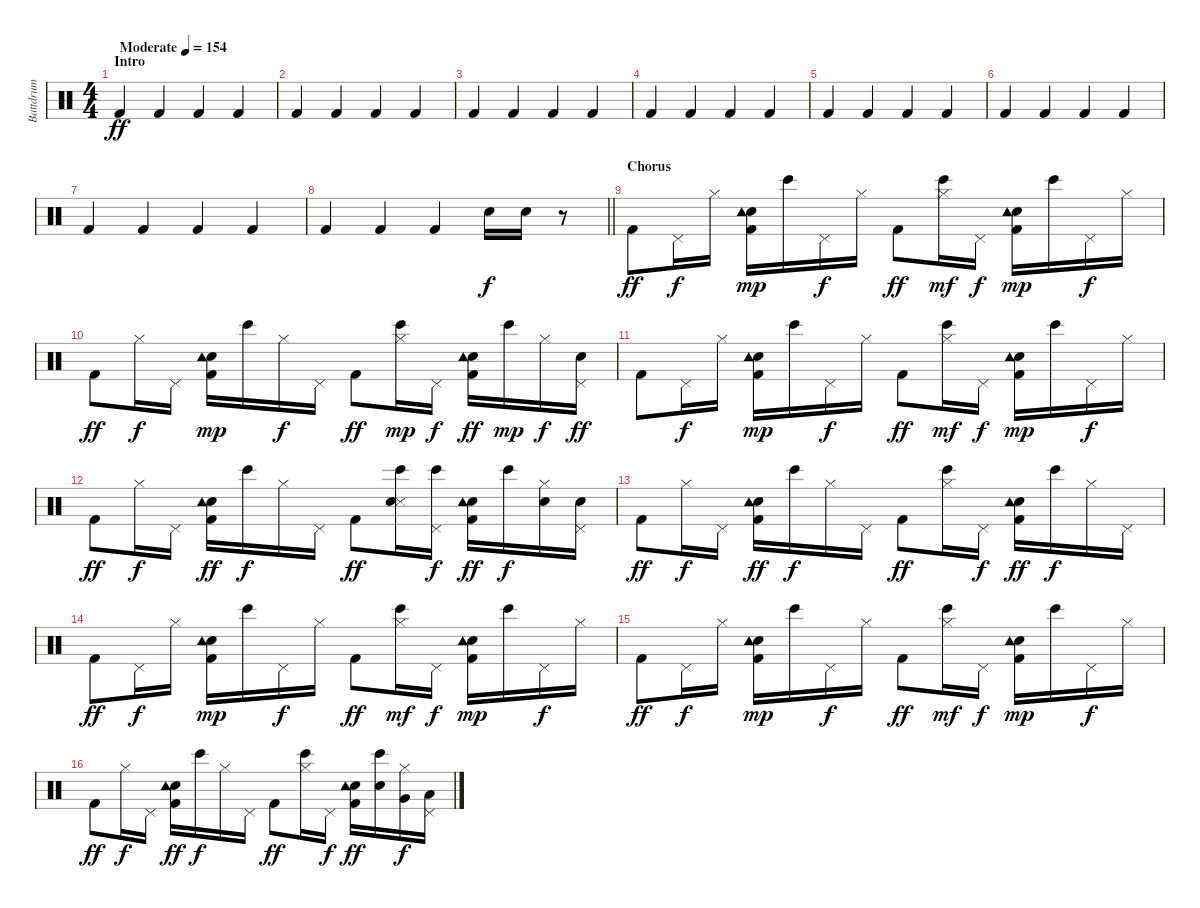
\track ("Battdrum" "Battdrum") {instrument percussion}
\staff {score}
\articulation defaults
\ts (4 4)
\section ("" "Intro")
\tempo (154 "Moderate")
\clef neutral
\ks c "Kick (hit) 2".4{dy ff} "Kick (hit) 2".4 "Kick (hit) 2".4 "Kick (hit) 2".4
|
"Kick (hit) 2".4 "Kick (hit) 2".4 "Kick (hit) 2".4 "Kick (hit) 2".4 |
"Kick (hit) 2".4 "Kick (hit) 2".4 "Kick (hit) 2".4 "Kick (hit) 2".4 |
"Kick (hit) 2".4 "Kick (hit) 2".4 "Kick (hit) 2".4 "Kick (hit) 2".4 |
"Kick (hit) 2".4 "Kick (hit) 2".4 "Kick (hit) 2".4 "Kick (hit) 2".4 |
"Kick (hit) 2".4 "Kick (hit) 2".4 "Kick (hit) 2".4 "Kick (hit) 2".4 |
"Kick (hit) 2".4 "Kick (hit) 2".4 "Kick (hit) 2".4 "Kick (hit) 2".4 |
\barLineRight lightlight "Kick (hit) 2".4 "Kick (hit) 2".4 "Kick (hit) 2".4 "Snare (hit) 2".16{dy f} "Snare (hit) 2".16
r.8 |
\section ("" "Chorus")
"Kick (hit) 2".8{dy ff} "Pedal Hi-Hat (hit)".16{dy f} "Hi-Hat (closed)".16 ("Kick (hit) 2" "Electric Snare (hit)" "Tambourine (hit)").16{dy mp} "Bongo High (hit)".16 "Pedal Hi-Hat (hit)".16{dy f} "Hi-Hat (closed)".16 "Kick (hit) 2".8{dy ff} ("Bongo High (hit)" "Hi-Hat (closed)").16{dy mf} "Pedal Hi-Hat (hit)".16{dy f} ("Kick (hit) 2" "Electric Snare (hit)" "Tambourine (hit)").16{dy mp} "Bongo High (hit)".16 "Pedal Hi-Hat (hit)".16{dy f} "Hi-Hat (closed)".16 |
"Kick (hit) 2".8{dy ff} "Hi-Hat (closed)".16{dy f} "Pedal Hi-Hat (hit)".16 ("Kick (hit) 2" "Electric Snare (hit)" "Tambourine (hit)").16{dy mp} "Bongo High (hit)".16 "Hi-Hat (closed)".16{dy f} "Pedal Hi-Hat (hit)".16 "Kick (hit) 2".8{dy ff} ("Bongo High (hit)" "Hi-Hat (closed)").16{dy mp} "Pedal Hi-Hat (hit)".16{dy f} ("Kick (hit) 2" "Electric Snare (hit)" "Tambourine (hit)").16{dy ff} "Bongo High (hit)".16{dy mp} "Hi-Hat (closed)".16{dy f} ("Electric Snare (hit)" "Pedal Hi-Hat (hit)").16{dy ff} |
"Kick (hit) 2".8 "Pedal Hi-Hat (hit)".16{dy f} "Hi-Hat (closed)".16 ("Kick (hit) 2" "Electric Snare (hit)" "Tambourine (hit)").16{dy mp} "Bongo High (hit)".16 "Pedal Hi-Hat (hit)".16{dy f} "Hi-Hat (closed)".16 "Kick (hit) 2".8{dy ff} ("Bongo High (hit)" "Hi-Hat (closed)").16{dy mf} "Pedal Hi-Hat (hit)".16{dy f} ("Kick (hit) 2" "Electric Snare (hit)" "Tambourine (hit)").16{dy mp} "Bongo High (hit)".16 "Pedal Hi-Hat (hit)".16{dy f} "Hi-Hat (closed)".16 |
"Kick (hit) 2".8{dy ff} "Hi-Hat (closed)".16{dy f} "Pedal Hi-Hat (hit)".16 ("Kick (hit) 2" "Electric Snare (hit)" "Tambourine (hit)").16{dy ff} "Bongo High (hit)".16{dy f} "Hi-Hat (closed)".16 "Pedal Hi-Hat (hit)".16 "Kick (hit) 2".8{dy ff} ("Snare (side stick) 3" "Electric Snare (hit)" "Bongo High (hit)").16 ("Bongo High (hit)" "Pedal Hi-Hat (hit)").16{dy f} ("Kick (hit) 2" "Electric Snare (hit)" "Tambourine (hit)").16{dy ff} "Bongo High (hit)".16{dy f} ("Electric Snare (hit)" "Hi-Hat (closed)").16 ("Electric Snare (hit)" "Pedal Hi-Hat (hit)").16 |
"Kick (hit) 2".8{dy ff} "Hi-Hat (closed)".16{dy f} "Pedal Hi-Hat (hit)".16 ("Kick (hit) 2" "Electric Snare (hit)" "Tambourine (hit)").16{dy ff} "Bongo High (hit)".16{dy f} "Hi-Hat (closed)".16 "Pedal Hi-Hat (hit)".16 "Kick (hit) 2".8{dy ff} ("Bongo High (hit)" "Hi-Hat (closed)").16 "Pedal Hi-Hat (hit)".16{dy f} ("Kick (hit) 2" "Electric Snare (hit)" "Tambourine (hit)").16{dy ff} "Bongo High (hit)".16{dy f} "Hi-Hat (closed)".16 "Pedal Hi-Hat (hit)".16 |
"Kick (hit) 2".8{dy ff} "Pedal Hi-Hat (hit)".16{dy f} "Hi-Hat (closed)".16 ("Kick (hit) 2" "Electric Snare (hit)" "Tambourine (hit)").16{dy mp} "Bongo High (hit)".16 "Pedal Hi-Hat (hit)".16{dy f} "Hi-Hat (closed)".16 "Kick (hit) 2".8{dy ff} ("Bongo High (hit)" "Hi-Hat (closed)").16{dy mf} "Pedal Hi-Hat (hit)".16{dy f} ("Kick (hit) 2" "Electric Snare (hit)" "Tambourine (hit)").16{dy mp} "Bongo High (hit)".16 "Pedal Hi-Hat (hit)".16{dy f} "Hi-Hat (closed)".16 |
"Kick (hit) 2".8{dy ff} "Pedal Hi-Hat (hit)".16{dy f} "Hi-Hat (closed)".16 ("Kick (hit) 2" "Electric Snare (hit)" "Tambourine (hit)").16{dy mp} "Bongo High (hit)".16 "Pedal Hi-Hat (hit)".16{dy f} "Hi-Hat (closed)".16 "Kick (hit) 2".8{dy ff} ("Bongo High (hit)" "Hi-Hat (closed)").16{dy mf} "Pedal Hi-Hat (hit)".16{dy f} ("Kick (hit) 2" "Electric Snare (hit)" "Tambourine (hit)").16{dy mp} "Bongo High (hit)".16 "Pedal Hi-Hat (hit)".16{dy f} "Hi-Hat (closed)".16 |
"Kick (hit) 2".8{dy ff} "Hi-Hat (closed)".16{dy f} "Pedal Hi-Hat (hit)".16 ("Kick (hit) 2" "Electric Snare (hit)" "Tambourine (hit)").16{dy ff} "Bongo High (hit)".16{dy f} "Hi-Hat (closed)".16 "Pedal Hi-Hat (hit)".16 "Kick (hit) 2".8{dy ff} ("Bongo High (hit)" "Hi-Hat (closed)").16 "Pedal Hi-Hat (hit)".16{dy f} ("Kick (hit) 2" "Electric Snare (hit)" "Tambourine (hit)").16{dy ff} ("Electric Snare (hit)" "Bongo High (hit)").16 ("Hi-Hat (closed)" "Very Low Tom (hit)").16{dy f} ("Pedal Hi-Hat (hit)" "Low Tom (hit)").16
